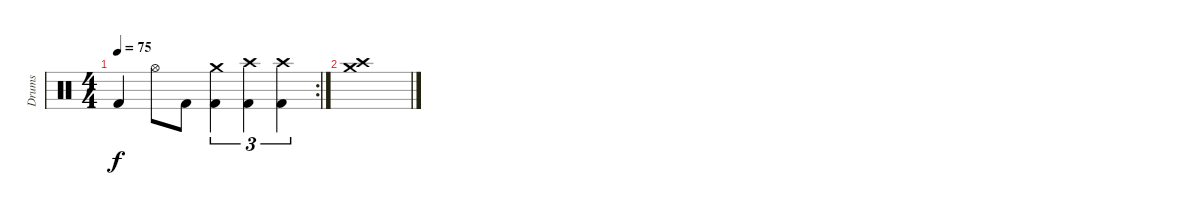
\track ("Drums" "Drums") {instrument percussion}
\staff {score}
\articulation defaults
\rc 2
\ts (4 4)
\tempo 75
\clef neutral
\ks c "Kick (hit) 2".4{dy f} "Hi-Hat (open)".8 "Kick (hit) 2".8
("Kick (hit) 2" "Crash medium (hit)").4{tu (3 2)} ("Kick (hit) 2" "Crash high (hit)").4{tu (3 2)} ("Kick (hit) 2" "Crash high (hit)").4{tu (3 2)} |
("Crash high (hit)" "Crash medium (hit)").1
